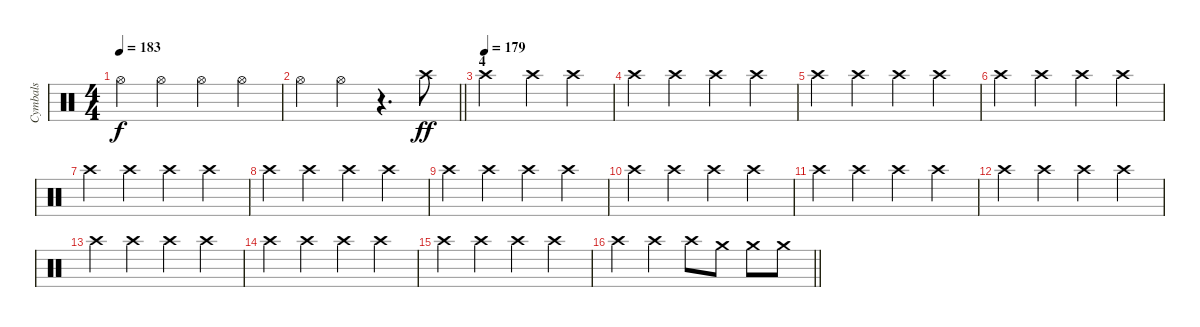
\track ("Cymbals" "Cymbals") {instrument percussion}
\staff {score}
\articulation defaults
\ts (4 4)
\tempo 183
\clef neutral
\ks c "Hi-Hat (open)".4{dy f} "Hi-Hat (open)".4 "Hi-Hat (open)".4 "Hi-Hat (open)".4
|
\barLineRight lightlight "Hi-Hat (open)".4 "Hi-Hat (open)".4
r.4{d} "Crash high (hit)".8{dy ff} |
\section ("" "4")
\tempo (179)
"Crash high (hit)".2 "Crash high (hit)".4 "Crash high (hit)".4 |
"Crash high (hit)".4 "Crash high (hit)".4 "Crash high (hit)".4 "Crash high (hit)".4 |
"Crash high (hit)".4 "Crash high (hit)".4 "Crash high (hit)".4 "Crash high (hit)".4 |
"Crash high (hit)".4 "Crash high (hit)".4 "Crash high (hit)".4 "Crash high (hit)".4 |
"Crash high (hit)".4 "Crash high (hit)".4 "Crash high (hit)".4 "Crash high (hit)".4 |
"Crash high (hit)".4 "Crash high (hit)".4 "Crash high (hit)".4 "Crash high (hit)".4 |
"Crash high (hit)".4 "Crash high (hit)".4 "Crash high (hit)".4 "Crash high (hit)".4 |
"Crash high (hit)".4 "Crash high (hit)".4 "Crash high (hit)".4 "Crash high (hit)".4 |
"Crash high (hit)".4 "Crash high (hit)".4 "Crash high (hit)".4 "Crash high (hit)".4 |
"Crash high (hit)".4 "Crash high (hit)".4 "Crash high (hit)".4 "Crash high (hit)".4 |
"Crash high (hit)".4 "Crash high (hit)".4 "Crash high (hit)".4 "Crash high (hit)".4 |
"Crash high (hit)".4 "Crash high (hit)".4 "Crash high (hit)".4 "Crash high (hit)".4 |
"Crash high (hit)".4 "Crash high (hit)".4 "Crash high (hit)".4 "Crash high (hit)".4 |
\barLineRight lightlight "Crash high (hit)".4 "Crash high (hit)".4 "Crash high (hit)".8 "Crash medium (hit)".8 "Crash medium (hit)".8 "Crash medium (hit)".8
